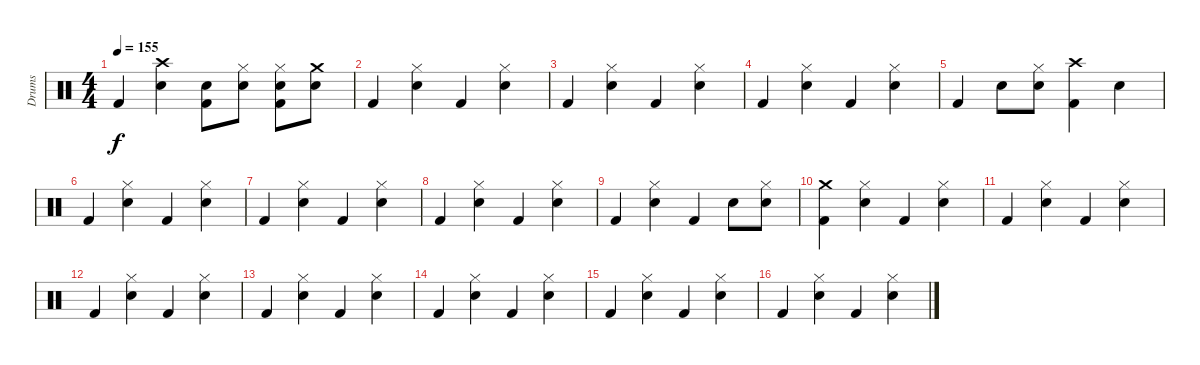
\track ("Drums" "Drums") {instrument percussion}
\staff {score}
\articulation defaults
\ts (4 4)
\tempo 155
\clef neutral
\ks c "Kick (hit) 2".4{dy f}
("Electric Snare (hit)" "Crash high (hit)").4 ("Kick (hit) 2" "Electric Snare (hit)").8 ("Electric Snare (hit)" "Hi-Hat (closed)").8 ("Kick (hit) 2" "Electric Snare (hit)" "Hi-Hat (closed)").8 ("Electric Snare (hit)" "Crash medium (hit)").8 |
"Kick (hit) 2".4 ("Electric Snare (hit)" "Hi-Hat (closed)").4 "Kick (hit) 2".4 ("Electric Snare (hit)" "Hi-Hat (closed)").4 |
"Kick (hit) 2".4 ("Electric Snare (hit)" "Hi-Hat (closed)").4 "Kick (hit) 2".4 ("Electric Snare (hit)" "Hi-Hat (closed)").4 |
"Kick (hit) 2".4 ("Electric Snare (hit)" "Hi-Hat (closed)").4 "Kick (hit) 2".4 ("Electric Snare (hit)" "Hi-Hat (closed)").4 |
"Kick (hit) 2".4 "Electric Snare (hit)".8 ("Electric Snare (hit)" "Hi-Hat (closed)").8 ("Kick (hit) 2" "Crash high (hit)").4 "Electric Snare (hit)".4 |
"Kick (hit) 2".4 ("Electric Snare (hit)" "Hi-Hat (closed)").4 "Kick (hit) 2".4 ("Electric Snare (hit)" "Hi-Hat (closed)").4 |
"Kick (hit) 2".4 ("Electric Snare (hit)" "Hi-Hat (closed)").4 "Kick (hit) 2".4 ("Electric Snare (hit)" "Hi-Hat (closed)").4 |
"Kick (hit) 2".4 ("Electric Snare (hit)" "Hi-Hat (closed)").4 "Kick (hit) 2".4 ("Electric Snare (hit)" "Hi-Hat (closed)").4 |
"Kick (hit) 2".4 ("Electric Snare (hit)" "Hi-Hat (closed)").4 "Kick (hit) 2".4 "Electric Snare (hit)".8 ("Electric Snare (hit)" "Hi-Hat (closed)").8 |
("Kick (hit) 2" "Crash medium (hit)").4 ("Electric Snare (hit)" "Hi-Hat (closed)").4 "Kick (hit) 2".4 ("Electric Snare (hit)" "Hi-Hat (closed)").4 |
"Kick (hit) 2".4 ("Electric Snare (hit)" "Hi-Hat (closed)").4 "Kick (hit) 2".4 ("Electric Snare (hit)" "Hi-Hat (closed)").4 |
"Kick (hit) 2".4 ("Electric Snare (hit)" "Hi-Hat (closed)").4 "Kick (hit) 2".4 ("Electric Snare (hit)" "Hi-Hat (closed)").4 |
"Kick (hit) 2".4 ("Electric Snare (hit)" "Hi-Hat (closed)").4 "Kick (hit) 2".4 ("Electric Snare (hit)" "Hi-Hat (closed)").4 |
"Kick (hit) 2".4 ("Electric Snare (hit)" "Hi-Hat (closed)").4 "Kick (hit) 2".4 ("Electric Snare (hit)" "Hi-Hat (closed)").4 |
"Kick (hit) 2".4 ("Electric Snare (hit)" "Hi-Hat (closed)").4 "Kick (hit) 2".4 ("Electric Snare (hit)" "Hi-Hat (closed)").4 |
"Kick (hit) 2".4 ("Electric Snare (hit)" "Hi-Hat (closed)").4 "Kick (hit) 2".4 ("Electric Snare (hit)" "Hi-Hat (closed)").4
